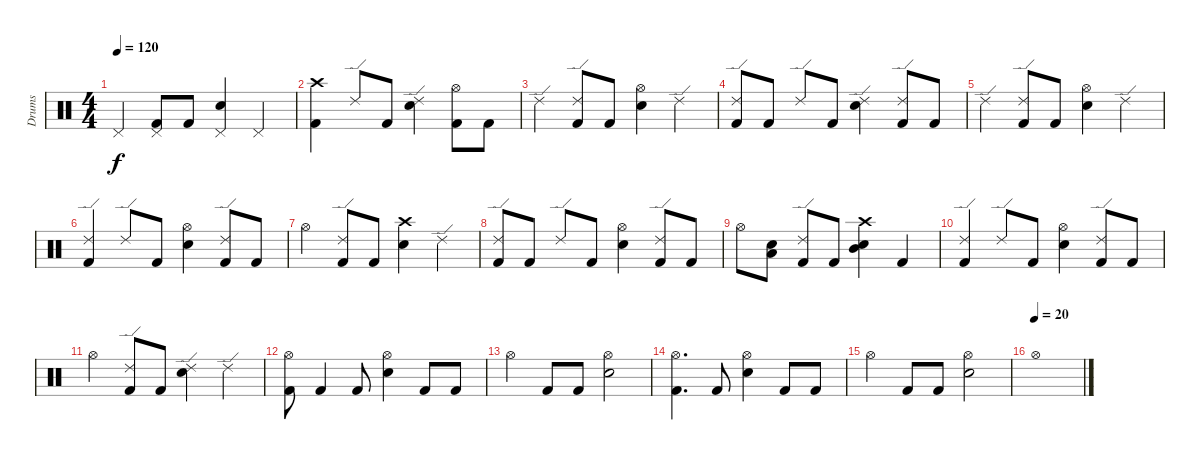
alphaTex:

\track ("Drums" "Drums") {instrument percussion}
\staff {score}
\articulation defaults
\ts (4 4)
\tempo 120
\clef neutral
\ks c "Pedal Hi-Hat (hit)".4{dy f}
("Pedal Hi-Hat (hit)" "Kick (hit) 2").8 "Kick (hit) 2".8 ("Pedal Hi-Hat (hit)" "Snare (hit) 2").4 "Pedal Hi-Hat (hit)".4 |
("Crash high (hit)" "Kick (hit) 2").4 "Ride (edge) 2".8 "Kick (hit) 2".8 ("Ride (edge) 2" "Snare (hit) 2").4 ("Hi-Hat (open)" "Kick (hit) 2").8 "Kick (hit) 2".8 |
"Ride (edge) 2".4 ("Ride (edge) 2" "Kick (hit) 2").8 "Kick (hit) 2".8 ("Hi-Hat (open)" "Snare (hit) 2").4 "Ride (edge) 2".4 |
("Ride (edge) 2" "Kick (hit) 2").8 "Kick (hit) 2".8 "Ride (edge) 2".8 "Kick (hit) 2".8 ("Ride (edge) 2" "Snare (hit) 2").4 ("Ride (edge) 2" "Kick (hit) 2").8 "Kick (hit) 2".8 |
"Ride (edge) 2".4 ("Ride (edge) 2" "Kick (hit) 2").8 "Kick (hit) 2".8 ("Hi-Hat (open)" "Snare (hit) 2").4 "Ride (edge) 2".4 |
("Ride (edge) 2" "Kick (hit) 2").4 "Ride (edge) 2".8 "Kick (hit) 2".8 ("Hi-Hat (open)" "Snare (hit) 2").4 ("Ride (edge) 2" "Kick (hit) 2").8 "Kick (hit) 2".8 |
"Hi-Hat (open)".4 ("Ride (edge) 2" "Kick (hit) 2").8 "Kick (hit) 2".8 ("Crash high (hit)" "Snare (hit) 2").4 "Ride (edge) 2".4 |
("Ride (edge) 2" "Kick (hit) 2").8 "Kick (hit) 2".8 "Ride (edge) 2".8 "Kick (hit) 2".8 ("Hi-Hat (open)" "Snare (hit) 2").4 ("Ride (edge) 2" "Kick (hit) 2").8 "Kick (hit) 2".8 |
"Hi-Hat (open)".8 ("Low Tom (hit)" "Snare (hit) 2").8 ("Ride (edge) 2" "Kick (hit) 2").8 "Kick (hit) 2".8 ("Crash high (hit)" "Mid Tom (hit)" "Snare (hit) 2").4 "Kick (hit) 2".4 |
("Ride (edge) 2" "Kick (hit) 2").4 "Ride (edge) 2".8 "Kick (hit) 2".8 ("Hi-Hat (open)" "Snare (hit) 2").4 ("Ride (edge) 2" "Kick (hit) 2").8 "Kick (hit) 2".8 |
"Hi-Hat (open)".4 ("Ride (edge) 2" "Kick (hit) 2").8 "Kick (hit) 2".8 ("Ride (edge) 2" "Snare (hit) 2").4 "Ride (edge) 2".4 |
("Hi-Hat (open)" "Kick (hit) 2").8 "Kick (hit) 2".4 "Kick (hit) 2".8 ("Hi-Hat (open)" "Snare (hit) 2").4 "Kick (hit) 2".8 "Kick (hit) 2".8 |
"Hi-Hat (open)".4 "Kick (hit) 2".8 "Kick (hit) 2".8 ("Hi-Hat (open)" "Snare (hit) 2").2 |
("Hi-Hat (open)" "Kick (hit) 2").4{d} "Kick (hit) 2".8 ("Hi-Hat (open)" "Snare (hit) 2").4 "Kick (hit) 2".8 "Kick (hit) 2".8 |
"Hi-Hat (open)".4 "Kick (hit) 2".8 "Kick (hit) 2".8 ("Hi-Hat (open)" "Snare (hit) 2").2 |
\tempo (20)
"Hi-Hat (open)".1
